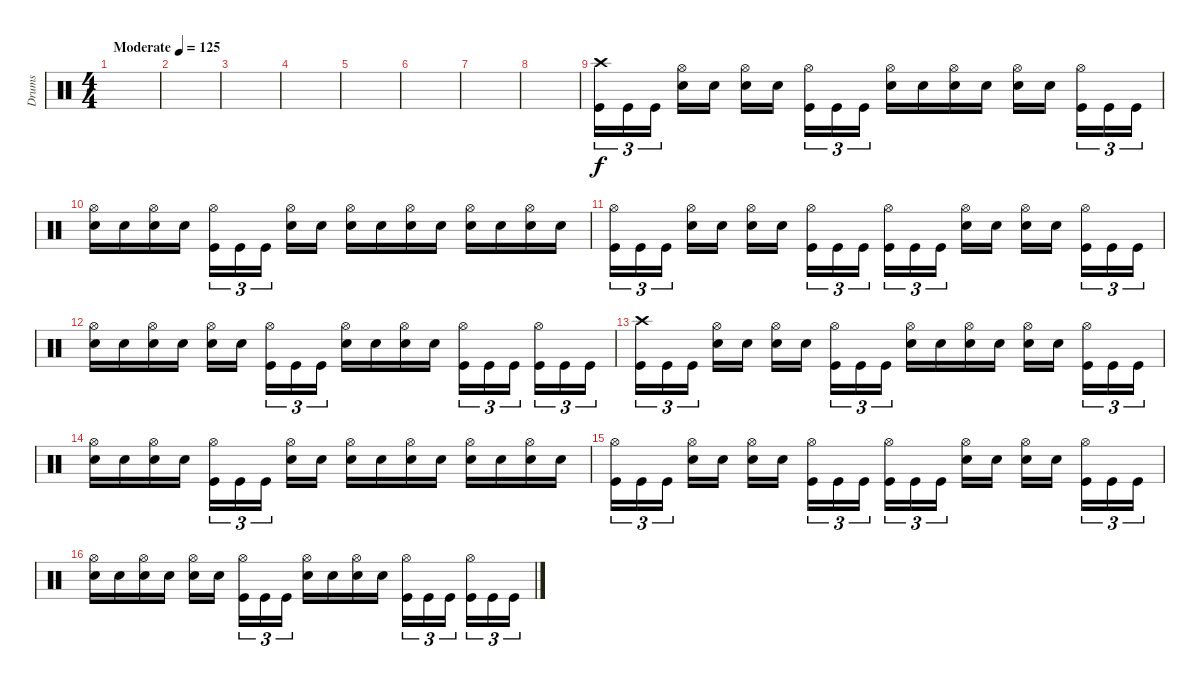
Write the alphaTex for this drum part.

\track ("Drums" "Drums") {instrument percussion}
\staff
\articulation defaults
\ts (4 4)
\tempo (125 "Moderate")
\clef neutral
\ks c
|
|
|
|
|
|
|
|
("Crash high (hit)" "Kick (hit)").16{tu (3 2)} "Kick (hit)".16{tu (3 2)} "Kick (hit)".16{tu (3 2) beam splitsecondary} ("Hi-Hat (open)" "Electric Snare (hit)").16 "Electric Snare (hit)".16 ("Hi-Hat (open)" "Electric Snare (hit)").16 "Electric Snare (hit)".16{beam splitsecondary} ("Hi-Hat (open)" "Kick (hit)").16{tu (3 2)} "Kick (hit)".16{tu (3 2)} "Kick (hit)".16{tu (3 2)} ("Hi-Hat (open)" "Electric Snare (hit)").16 "Electric Snare (hit)".16 ("Hi-Hat (open)" "Electric Snare (hit)").16 "Electric Snare (hit)".16 ("Hi-Hat (open)" "Electric Snare (hit)").16 "Electric Snare (hit)".16{beam splitsecondary} ("Hi-Hat (open)" "Kick (hit)").16{tu (3 2)} "Kick (hit)".16{tu (3 2)} "Kick (hit)".16{tu (3 2)} |
("Hi-Hat (open)" "Electric Snare (hit)").16 "Electric Snare (hit)".16 ("Hi-Hat (open)" "Electric Snare (hit)").16 "Electric Snare (hit)".16 ("Hi-Hat (open)" "Kick (hit)").16{tu (3 2)} "Kick (hit)".16{tu (3 2)} "Kick (hit)".16{tu (3 2) beam splitsecondary} ("Hi-Hat (open)" "Electric Snare (hit)").16 "Electric Snare (hit)".16 ("Hi-Hat (open)" "Electric Snare (hit)").16 "Electric Snare (hit)".16 ("Hi-Hat (open)" "Electric Snare (hit)").16 "Electric Snare (hit)".16 ("Hi-Hat (open)" "Electric Snare (hit)").16 "Electric Snare (hit)".16 ("Hi-Hat (open)" "Electric Snare (hit)").16 "Electric Snare (hit)".16 |
("Hi-Hat (open)" "Kick (hit)").16{tu (3 2)} "Kick (hit)".16{tu (3 2)} "Kick (hit)".16{tu (3 2) beam splitsecondary} ("Hi-Hat (open)" "Electric Snare (hit)").16 "Electric Snare (hit)".16 ("Hi-Hat (open)" "Electric Snare (hit)").16 "Electric Snare (hit)".16{beam splitsecondary} ("Hi-Hat (open)" "Kick (hit)").16{tu (3 2)} "Kick (hit)".16{tu (3 2)} "Kick (hit)".16{tu (3 2)} ("Hi-Hat (open)" "Kick (hit)").16{tu (3 2)} "Kick (hit)".16{tu (3 2)} "Kick (hit)".16{tu (3 2) beam splitsecondary} ("Hi-Hat (open)" "Electric Snare (hit)").16 "Electric Snare (hit)".16 ("Hi-Hat (open)" "Electric Snare (hit)").16 "Electric Snare (hit)".16{beam splitsecondary} ("Hi-Hat (open)" "Kick (hit)").16{tu (3 2)} "Kick (hit)".16{tu (3 2)} "Kick (hit)".16{tu (3 2)} |
("Hi-Hat (open)" "Electric Snare (hit)").16 "Electric Snare (hit)".16 ("Hi-Hat (open)" "Electric Snare (hit)").16 "Electric Snare (hit)".16 ("Hi-Hat (open)" "Electric Snare (hit)").16 "Electric Snare (hit)".16{beam splitsecondary} ("Hi-Hat (open)" "Kick (hit)").16{tu (3 2)} "Kick (hit)".16{tu (3 2)} "Kick (hit)".16{tu (3 2)} ("Hi-Hat (open)" "Electric Snare (hit)").16 "Electric Snare (hit)".16 ("Hi-Hat (open)" "Electric Snare (hit)").16 "Electric Snare (hit)".16 ("Hi-Hat (open)" "Kick (hit)").16{tu (3 2)} "Kick (hit)".16{tu (3 2)} "Kick (hit)".16{tu (3 2) beam splitsecondary} ("Hi-Hat (open)" "Kick (hit)").16{tu (3 2)} "Kick (hit)".16{tu (3 2)} "Kick (hit)".16{tu (3 2)} |
("Crash high (hit)" "Kick (hit)").16{tu (3 2)} "Kick (hit)".16{tu (3 2)} "Kick (hit)".16{tu (3 2) beam splitsecondary} ("Hi-Hat (open)" "Electric Snare (hit)").16 "Electric Snare (hit)".16 ("Hi-Hat (open)" "Electric Snare (hit)").16 "Electric Snare (hit)".16{beam splitsecondary} ("Hi-Hat (open)" "Kick (hit)").16{tu (3 2)} "Kick (hit)".16{tu (3 2)} "Kick (hit)".16{tu (3 2)} ("Hi-Hat (open)" "Electric Snare (hit)").16 "Electric Snare (hit)".16 ("Hi-Hat (open)" "Electric Snare (hit)").16 "Electric Snare (hit)".16 ("Hi-Hat (open)" "Electric Snare (hit)").16 "Electric Snare (hit)".16{beam splitsecondary} ("Hi-Hat (open)" "Kick (hit)").16{tu (3 2)} "Kick (hit)".16{tu (3 2)} "Kick (hit)".16{tu (3 2)} |
("Hi-Hat (open)" "Electric Snare (hit)").16 "Electric Snare (hit)".16 ("Hi-Hat (open)" "Electric Snare (hit)").16 "Electric Snare (hit)".16 ("Hi-Hat (open)" "Kick (hit)").16{tu (3 2)} "Kick (hit)".16{tu (3 2)} "Kick (hit)".16{tu (3 2) beam splitsecondary} ("Hi-Hat (open)" "Electric Snare (hit)").16 "Electric Snare (hit)".16 ("Hi-Hat (open)" "Electric Snare (hit)").16 "Electric Snare (hit)".16 ("Hi-Hat (open)" "Electric Snare (hit)").16 "Electric Snare (hit)".16 ("Hi-Hat (open)" "Electric Snare (hit)").16 "Electric Snare (hit)".16 ("Hi-Hat (open)" "Electric Snare (hit)").16 "Electric Snare (hit)".16 |
("Hi-Hat (open)" "Kick (hit)").16{tu (3 2)} "Kick (hit)".16{tu (3 2)} "Kick (hit)".16{tu (3 2) beam splitsecondary} ("Hi-Hat (open)" "Electric Snare (hit)").16 "Electric Snare (hit)".16 ("Hi-Hat (open)" "Electric Snare (hit)").16 "Electric Snare (hit)".16{beam splitsecondary} ("Hi-Hat (open)" "Kick (hit)").16{tu (3 2)} "Kick (hit)".16{tu (3 2)} "Kick (hit)".16{tu (3 2)} ("Hi-Hat (open)" "Kick (hit)").16{tu (3 2)} "Kick (hit)".16{tu (3 2)} "Kick (hit)".16{tu (3 2) beam splitsecondary} ("Hi-Hat (open)" "Electric Snare (hit)").16 "Electric Snare (hit)".16 ("Hi-Hat (open)" "Electric Snare (hit)").16 "Electric Snare (hit)".16{beam splitsecondary} ("Hi-Hat (open)" "Kick (hit)").16{tu (3 2)} "Kick (hit)".16{tu (3 2)} "Kick (hit)".16{tu (3 2)} |
("Hi-Hat (open)" "Electric Snare (hit)").16 "Electric Snare (hit)".16 ("Hi-Hat (open)" "Electric Snare (hit)").16 "Electric Snare (hit)".16 ("Hi-Hat (open)" "Electric Snare (hit)").16 "Electric Snare (hit)".16{beam splitsecondary} ("Hi-Hat (open)" "Kick (hit)").16{tu (3 2)} "Kick (hit)".16{tu (3 2)} "Kick (hit)".16{tu (3 2)} ("Hi-Hat (open)" "Electric Snare (hit)").16 "Electric Snare (hit)".16 ("Hi-Hat (open)" "Electric Snare (hit)").16 "Electric Snare (hit)".16 ("Hi-Hat (open)" "Kick (hit)").16{tu (3 2)} "Kick (hit)".16{tu (3 2)} "Kick (hit)".16{tu (3 2) beam splitsecondary} ("Hi-Hat (open)" "Kick (hit)").16{tu (3 2)} "Kick (hit)".16{tu (3 2)} "Kick (hit)".16{tu (3 2)}
